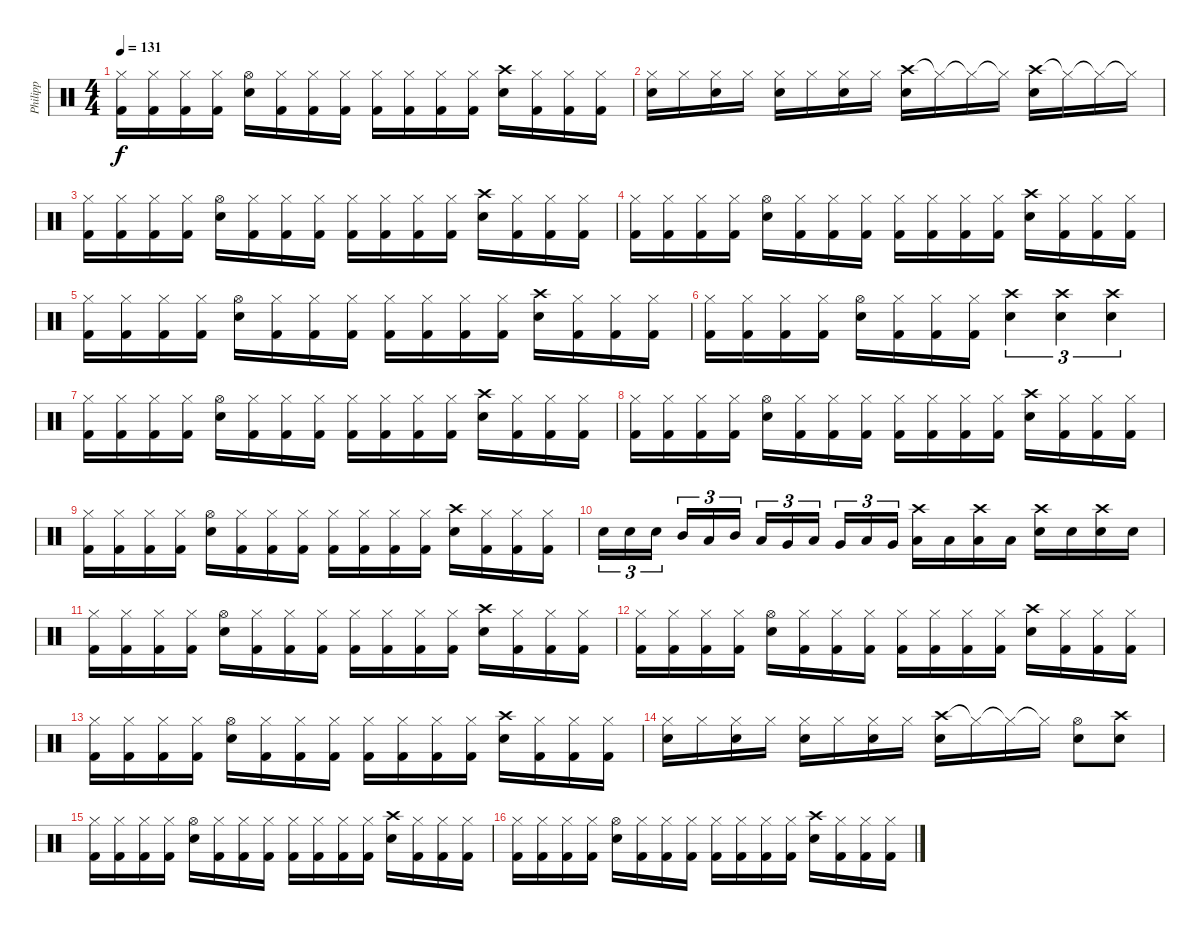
\track ("Philipp" "Philipp") {instrument percussion}
\staff {score}
\articulation defaults
\ts (4 4)
\tempo 131
\clef neutral
\ks c
("Hi-Hat (closed)" "Kick (hit) 2").16{dy f} ("Hi-Hat (closed)" "Kick (hit) 2").16 ("Hi-Hat (closed)" "Kick (hit) 2").16 ("Hi-Hat (closed)" "Kick (hit) 2").16 ("Hi-Hat (open)" "Electric Snare (hit)").16 ("Hi-Hat (closed)" "Kick (hit) 2").16 ("Hi-Hat (closed)" "Kick (hit) 2").16 ("Hi-Hat (closed)" "Kick (hit) 2").16 ("Hi-Hat (closed)" "Kick (hit) 2").16 ("Hi-Hat (closed)" "Kick (hit) 2").16 ("Hi-Hat (closed)" "Kick (hit) 2").16 ("Hi-Hat (closed)" "Kick (hit) 2").16 ("Crash high (hit)" "Electric Snare (hit)").16 ("Hi-Hat (closed)" "Kick (hit) 2").16 ("Hi-Hat (closed)" "Kick (hit) 2").16 ("Hi-Hat (closed)" "Kick (hit) 2").16 |
("Hi-Hat (closed)" "Electric Snare (hit)").16 "Hi-Hat (closed)".16 ("Hi-Hat (closed)" "Electric Snare (hit)").16 "Hi-Hat (closed)".16 ("Hi-Hat (closed)" "Electric Snare (hit)").16 "Hi-Hat (closed)".16 ("Hi-Hat (closed)" "Electric Snare (hit)").16 "Hi-Hat (closed)".16 ("Crash high (hit)" "Electric Snare (hit)").16 "Hi-Hat (closed)"{t}.16 "Hi-Hat (closed)"{t}.16 "Hi-Hat (closed)"{t}.16 ("Crash high (hit)" "Electric Snare (hit)").16 "Hi-Hat (closed)"{t}.16 "Hi-Hat (closed)"{t}.16 "Hi-Hat (closed)"{t}.16 |
("Hi-Hat (closed)" "Kick (hit) 2").16 ("Hi-Hat (closed)" "Kick (hit) 2").16 ("Hi-Hat (closed)" "Kick (hit) 2").16 ("Hi-Hat (closed)" "Kick (hit) 2").16 ("Hi-Hat (open)" "Electric Snare (hit)").16 ("Hi-Hat (closed)" "Kick (hit) 2").16 ("Hi-Hat (closed)" "Kick (hit) 2").16 ("Hi-Hat (closed)" "Kick (hit) 2").16 ("Hi-Hat (closed)" "Kick (hit) 2").16 ("Hi-Hat (closed)" "Kick (hit) 2").16 ("Hi-Hat (closed)" "Kick (hit) 2").16 ("Hi-Hat (closed)" "Kick (hit) 2").16 ("Crash high (hit)" "Electric Snare (hit)").16 ("Hi-Hat (closed)" "Kick (hit) 2").16 ("Hi-Hat (closed)" "Kick (hit) 2").16 ("Hi-Hat (closed)" "Kick (hit) 2").16 |
("Hi-Hat (closed)" "Kick (hit) 2").16 ("Hi-Hat (closed)" "Kick (hit) 2").16 ("Hi-Hat (closed)" "Kick (hit) 2").16 ("Hi-Hat (closed)" "Kick (hit) 2").16 ("Hi-Hat (open)" "Electric Snare (hit)").16 ("Hi-Hat (closed)" "Kick (hit) 2").16 ("Hi-Hat (closed)" "Kick (hit) 2").16 ("Hi-Hat (closed)" "Kick (hit) 2").16 ("Hi-Hat (closed)" "Kick (hit) 2").16 ("Hi-Hat (closed)" "Kick (hit) 2").16 ("Hi-Hat (closed)" "Kick (hit) 2").16 ("Hi-Hat (closed)" "Kick (hit) 2").16 ("Crash high (hit)" "Electric Snare (hit)").16 ("Hi-Hat (closed)" "Kick (hit) 2").16 ("Hi-Hat (closed)" "Kick (hit) 2").16 ("Hi-Hat (closed)" "Kick (hit) 2").16 |
("Hi-Hat (closed)" "Kick (hit) 2").16 ("Hi-Hat (closed)" "Kick (hit) 2").16 ("Hi-Hat (closed)" "Kick (hit) 2").16 ("Hi-Hat (closed)" "Kick (hit) 2").16 ("Hi-Hat (open)" "Electric Snare (hit)").16 ("Hi-Hat (closed)" "Kick (hit) 2").16 ("Hi-Hat (closed)" "Kick (hit) 2").16 ("Hi-Hat (closed)" "Kick (hit) 2").16 ("Hi-Hat (closed)" "Kick (hit) 2").16 ("Hi-Hat (closed)" "Kick (hit) 2").16 ("Hi-Hat (closed)" "Kick (hit) 2").16 ("Hi-Hat (closed)" "Kick (hit) 2").16 ("Crash high (hit)" "Electric Snare (hit)").16 ("Hi-Hat (closed)" "Kick (hit) 2").16 ("Hi-Hat (closed)" "Kick (hit) 2").16 ("Hi-Hat (closed)" "Kick (hit) 2").16 |
("Hi-Hat (closed)" "Kick (hit) 2").16 ("Hi-Hat (closed)" "Kick (hit) 2").16 ("Hi-Hat (closed)" "Kick (hit) 2").16 ("Hi-Hat (closed)" "Kick (hit) 2").16 ("Hi-Hat (open)" "Electric Snare (hit)").16 ("Hi-Hat (closed)" "Kick (hit) 2").16 ("Hi-Hat (closed)" "Kick (hit) 2").16 ("Hi-Hat (closed)" "Kick (hit) 2").16 ("Crash high (hit)" "Electric Snare (hit)").4{tu (3 2)} ("Crash high (hit)" "Electric Snare (hit)").4{tu (3 2)} ("Crash high (hit)" "Electric Snare (hit)").4{tu (3 2)} |
("Hi-Hat (closed)" "Kick (hit) 2").16 ("Hi-Hat (closed)" "Kick (hit) 2").16 ("Hi-Hat (closed)" "Kick (hit) 2").16 ("Hi-Hat (closed)" "Kick (hit) 2").16 ("Hi-Hat (open)" "Electric Snare (hit)").16 ("Hi-Hat (closed)" "Kick (hit) 2").16 ("Hi-Hat (closed)" "Kick (hit) 2").16 ("Hi-Hat (closed)" "Kick (hit) 2").16 ("Hi-Hat (closed)" "Kick (hit) 2").16 ("Hi-Hat (closed)" "Kick (hit) 2").16 ("Hi-Hat (closed)" "Kick (hit) 2").16 ("Hi-Hat (closed)" "Kick (hit) 2").16 ("Crash high (hit)" "Electric Snare (hit)").16 ("Hi-Hat (closed)" "Kick (hit) 2").16 ("Hi-Hat (closed)" "Kick (hit) 2").16 ("Hi-Hat (closed)" "Kick (hit) 2").16 |
("Hi-Hat (closed)" "Kick (hit) 2").16 ("Hi-Hat (closed)" "Kick (hit) 2").16 ("Hi-Hat (closed)" "Kick (hit) 2").16 ("Hi-Hat (closed)" "Kick (hit) 2").16 ("Hi-Hat (open)" "Electric Snare (hit)").16 ("Hi-Hat (closed)" "Kick (hit) 2").16 ("Hi-Hat (closed)" "Kick (hit) 2").16 ("Hi-Hat (closed)" "Kick (hit) 2").16 ("Hi-Hat (closed)" "Kick (hit) 2").16 ("Hi-Hat (closed)" "Kick (hit) 2").16 ("Hi-Hat (closed)" "Kick (hit) 2").16 ("Hi-Hat (closed)" "Kick (hit) 2").16 ("Crash high (hit)" "Electric Snare (hit)").16 ("Hi-Hat (closed)" "Kick (hit) 2").16 ("Hi-Hat (closed)" "Kick (hit) 2").16 ("Hi-Hat (closed)" "Kick (hit) 2").16 |
("Hi-Hat (closed)" "Kick (hit) 2").16 ("Hi-Hat (closed)" "Kick (hit) 2").16 ("Hi-Hat (closed)" "Kick (hit) 2").16 ("Hi-Hat (closed)" "Kick (hit) 2").16 ("Hi-Hat (open)" "Electric Snare (hit)").16 ("Hi-Hat (closed)" "Kick (hit) 2").16 ("Hi-Hat (closed)" "Kick (hit) 2").16 ("Hi-Hat (closed)" "Kick (hit) 2").16 ("Hi-Hat (closed)" "Kick (hit) 2").16 ("Hi-Hat (closed)" "Kick (hit) 2").16 ("Hi-Hat (closed)" "Kick (hit) 2").16 ("Hi-Hat (closed)" "Kick (hit) 2").16 ("Crash high (hit)" "Electric Snare (hit)").16 ("Hi-Hat (closed)" "Kick (hit) 2").16 ("Hi-Hat (closed)" "Kick (hit) 2").16 ("Hi-Hat (closed)" "Kick (hit) 2").16 |
"Electric Snare (hit)".16{tu (3 2)} "Electric Snare (hit)".16{tu (3 2)} "Electric Snare (hit)".16{tu (3 2)} "Mid Tom (hit)".16{tu (3 2)} "Low Tom (hit)".16{tu (3 2)} "Mid Tom (hit)".16{tu (3 2)} "Low Tom (hit)".16{tu (3 2)} "Very Low Tom (hit)".16{tu (3 2)} "Low Tom (hit)".16{tu (3 2)} "Very Low Tom (hit)".16{tu (3 2)} "Low Floor Tom (hit)".16{tu (3 2)} "Very Low Tom (hit)".16{tu (3 2)} ("Low Floor Tom (hit)" "Crash high (hit)").16 "Low Floor Tom (hit)".16 ("Low Floor Tom (hit)" "Crash high (hit)").16 "Low Floor Tom (hit)".16 ("Electric Snare (hit)" "Crash high (hit)").16 "Electric Snare (hit)".16 ("Electric Snare (hit)" "Crash high (hit)").16 "Electric Snare (hit)".16 |
("Hi-Hat (closed)" "Kick (hit) 2").16 ("Hi-Hat (closed)" "Kick (hit) 2").16 ("Hi-Hat (closed)" "Kick (hit) 2").16 ("Hi-Hat (closed)" "Kick (hit) 2").16 ("Hi-Hat (open)" "Electric Snare (hit)").16 ("Hi-Hat (closed)" "Kick (hit) 2").16 ("Hi-Hat (closed)" "Kick (hit) 2").16 ("Hi-Hat (closed)" "Kick (hit) 2").16 ("Hi-Hat (closed)" "Kick (hit) 2").16 ("Hi-Hat (closed)" "Kick (hit) 2").16 ("Hi-Hat (closed)" "Kick (hit) 2").16 ("Hi-Hat (closed)" "Kick (hit) 2").16 ("Crash high (hit)" "Electric Snare (hit)").16 ("Hi-Hat (closed)" "Kick (hit) 2").16 ("Hi-Hat (closed)" "Kick (hit) 2").16 ("Hi-Hat (closed)" "Kick (hit) 2").16 |
("Hi-Hat (closed)" "Kick (hit) 2").16 ("Hi-Hat (closed)" "Kick (hit) 2").16 ("Hi-Hat (closed)" "Kick (hit) 2").16 ("Hi-Hat (closed)" "Kick (hit) 2").16 ("Hi-Hat (open)" "Electric Snare (hit)").16 ("Hi-Hat (closed)" "Kick (hit) 2").16 ("Hi-Hat (closed)" "Kick (hit) 2").16 ("Hi-Hat (closed)" "Kick (hit) 2").16 ("Hi-Hat (closed)" "Kick (hit) 2").16 ("Hi-Hat (closed)" "Kick (hit) 2").16 ("Hi-Hat (closed)" "Kick (hit) 2").16 ("Hi-Hat (closed)" "Kick (hit) 2").16 ("Crash high (hit)" "Electric Snare (hit)").16 ("Hi-Hat (closed)" "Kick (hit) 2").16 ("Hi-Hat (closed)" "Kick (hit) 2").16 ("Hi-Hat (closed)" "Kick (hit) 2").16 |
("Hi-Hat (closed)" "Kick (hit) 2").16 ("Hi-Hat (closed)" "Kick (hit) 2").16 ("Hi-Hat (closed)" "Kick (hit) 2").16 ("Hi-Hat (closed)" "Kick (hit) 2").16 ("Hi-Hat (open)" "Electric Snare (hit)").16 ("Hi-Hat (closed)" "Kick (hit) 2").16 ("Hi-Hat (closed)" "Kick (hit) 2").16 ("Hi-Hat (closed)" "Kick (hit) 2").16 ("Hi-Hat (closed)" "Kick (hit) 2").16 ("Hi-Hat (closed)" "Kick (hit) 2").16 ("Hi-Hat (closed)" "Kick (hit) 2").16 ("Hi-Hat (closed)" "Kick (hit) 2").16 ("Crash high (hit)" "Electric Snare (hit)").16 ("Hi-Hat (closed)" "Kick (hit) 2").16 ("Hi-Hat (closed)" "Kick (hit) 2").16 ("Hi-Hat (closed)" "Kick (hit) 2").16 |
("Hi-Hat (closed)" "Electric Snare (hit)").16 "Hi-Hat (closed)".16 ("Hi-Hat (closed)" "Electric Snare (hit)").16 "Hi-Hat (closed)".16 ("Hi-Hat (closed)" "Electric Snare (hit)").16 "Hi-Hat (closed)".16 ("Hi-Hat (closed)" "Electric Snare (hit)").16 "Hi-Hat (closed)".16 ("Crash high (hit)" "Electric Snare (hit)").16 "Hi-Hat (closed)"{t}.16 "Hi-Hat (closed)"{t}.16 "Hi-Hat (closed)"{t}.16 ("Hi-Hat (open)" "Electric Snare (hit)").8 ("Crash high (hit)" "Electric Snare (hit)").8 |
("Hi-Hat (closed)" "Kick (hit) 2").16 ("Hi-Hat (closed)" "Kick (hit) 2").16 ("Hi-Hat (closed)" "Kick (hit) 2").16 ("Hi-Hat (closed)" "Kick (hit) 2").16 ("Hi-Hat (open)" "Electric Snare (hit)").16 ("Hi-Hat (closed)" "Kick (hit) 2").16 ("Hi-Hat (closed)" "Kick (hit) 2").16 ("Hi-Hat (closed)" "Kick (hit) 2").16 ("Hi-Hat (closed)" "Kick (hit) 2").16 ("Hi-Hat (closed)" "Kick (hit) 2").16 ("Hi-Hat (closed)" "Kick (hit) 2").16 ("Hi-Hat (closed)" "Kick (hit) 2").16 ("Crash high (hit)" "Electric Snare (hit)").16 ("Hi-Hat (closed)" "Kick (hit) 2").16 ("Hi-Hat (closed)" "Kick (hit) 2").16 ("Hi-Hat (closed)" "Kick (hit) 2").16 |
("Hi-Hat (closed)" "Kick (hit) 2").16 ("Hi-Hat (closed)" "Kick (hit) 2").16 ("Hi-Hat (closed)" "Kick (hit) 2").16 ("Hi-Hat (closed)" "Kick (hit) 2").16 ("Hi-Hat (open)" "Electric Snare (hit)").16 ("Hi-Hat (closed)" "Kick (hit) 2").16 ("Hi-Hat (closed)" "Kick (hit) 2").16 ("Hi-Hat (closed)" "Kick (hit) 2").16 ("Hi-Hat (closed)" "Kick (hit) 2").16 ("Hi-Hat (closed)" "Kick (hit) 2").16 ("Hi-Hat (closed)" "Kick (hit) 2").16 ("Hi-Hat (closed)" "Kick (hit) 2").16 ("Crash high (hit)" "Electric Snare (hit)").16 ("Hi-Hat (closed)" "Kick (hit) 2").16 ("Hi-Hat (closed)" "Kick (hit) 2").16 ("Hi-Hat (closed)" "Kick (hit) 2").16
